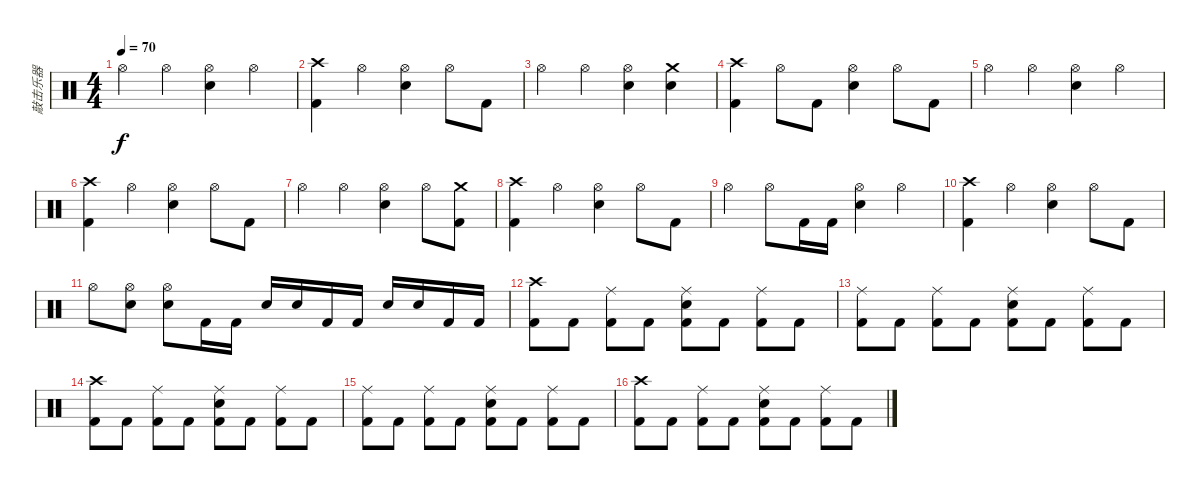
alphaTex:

\track ("敲击乐器" "敲击乐器") {instrument percussion}
\staff {score}
\articulation defaults
\ts (4 4)
\tempo 70
\clef neutral
\ks c "Hi-Hat (open)".4{dy f} "Hi-Hat (open)".4
("Hi-Hat (open)" "Snare (hit) 2").4 "Hi-Hat (open)".4 |
("Kick (hit) 2" "Crash high (hit)").4 "Hi-Hat (open)".4 ("Hi-Hat (open)" "Snare (hit) 2").4 "Hi-Hat (open)".8 "Kick (hit) 2".8 |
"Hi-Hat (open)".4 "Hi-Hat (open)".4 ("Hi-Hat (open)" "Snare (hit) 2").4 ("Crash medium (hit)" "Snare (hit) 2").4 |
("Kick (hit) 2" "Crash high (hit)").4 "Hi-Hat (open)".8 "Kick (hit) 2".8 ("Hi-Hat (open)" "Snare (hit) 2").4 "Hi-Hat (open)".8 "Kick (hit) 2".8 |
"Hi-Hat (open)".4 "Hi-Hat (open)".4 ("Hi-Hat (open)" "Snare (hit) 2").4 "Hi-Hat (open)".4 |
("Kick (hit) 2" "Crash high (hit)").4 "Hi-Hat (open)".4 ("Hi-Hat (open)" "Snare (hit) 2").4 "Hi-Hat (open)".8 "Kick (hit) 2".8 |
"Hi-Hat (open)".4 "Hi-Hat (open)".4 ("Hi-Hat (open)" "Snare (hit) 2").4 "Hi-Hat (open)".8 ("Kick (hit) 2" "Crash medium (hit)").8 |
("Kick (hit) 2" "Crash high (hit)").4 "Hi-Hat (open)".4 ("Hi-Hat (open)" "Snare (hit) 2").4 "Hi-Hat (open)".8 "Kick (hit) 2".8 |
"Hi-Hat (open)".4 "Hi-Hat (open)".8 "Kick (hit) 2".16 "Kick (hit) 2".16 ("Hi-Hat (open)" "Snare (hit) 2").4 "Hi-Hat (open)".4 |
("Kick (hit) 2" "Crash high (hit)").4 "Hi-Hat (open)".4 ("Hi-Hat (open)" "Snare (hit) 2").4 "Hi-Hat (open)".8 "Kick (hit) 2".8 |
"Hi-Hat (open)".8 ("Hi-Hat (open)" "Snare (hit) 2").8 ("Hi-Hat (open)" "Snare (hit) 2").8 "Kick (hit) 2".16 "Kick (hit) 2".16 "Snare (hit) 2".16 "Snare (hit) 2".16 "Kick (hit) 2".16 "Kick (hit) 2".16 "Snare (hit) 2".16 "Snare (hit) 2".16 "Kick (hit) 2".16 "Kick (hit) 2".16 |
("Crash high (hit)" "Kick (hit) 2").8 "Kick (hit) 2".8 ("Ride (middle)" "Kick (hit) 2").8 "Kick (hit) 2".8 ("Ride (middle)" "Snare (hit) 2" "Kick (hit) 2").8 "Kick (hit) 2".8 ("Ride (middle)" "Kick (hit) 2").8 "Kick (hit) 2".8 |
("Ride (middle)" "Kick (hit) 2").8 "Kick (hit) 2".8 ("Ride (middle)" "Kick (hit) 2").8 "Kick (hit) 2".8 ("Ride (middle)" "Snare (hit) 2" "Kick (hit) 2").8 "Kick (hit) 2".8 ("Ride (middle)" "Kick (hit) 2").8 "Kick (hit) 2".8 |
("Crash high (hit)" "Kick (hit) 2").8 "Kick (hit) 2".8 ("Ride (middle)" "Kick (hit) 2").8 "Kick (hit) 2".8 ("Ride (middle)" "Snare (hit) 2" "Kick (hit) 2").8 "Kick (hit) 2".8 ("Ride (middle)" "Kick (hit) 2").8 "Kick (hit) 2".8 |
("Ride (middle)" "Kick (hit) 2").8 "Kick (hit) 2".8 ("Ride (middle)" "Kick (hit) 2").8 "Kick (hit) 2".8 ("Ride (middle)" "Snare (hit) 2" "Kick (hit) 2").8 "Kick (hit) 2".8 ("Ride (middle)" "Kick (hit) 2").8 "Kick (hit) 2".8 |
("Crash high (hit)" "Kick (hit) 2").8 "Kick (hit) 2".8 ("Ride (middle)" "Kick (hit) 2").8 "Kick (hit) 2".8 ("Ride (middle)" "Snare (hit) 2" "Kick (hit) 2").8 "Kick (hit) 2".8 ("Ride (middle)" "Kick (hit) 2").8 "Kick (hit) 2".8
